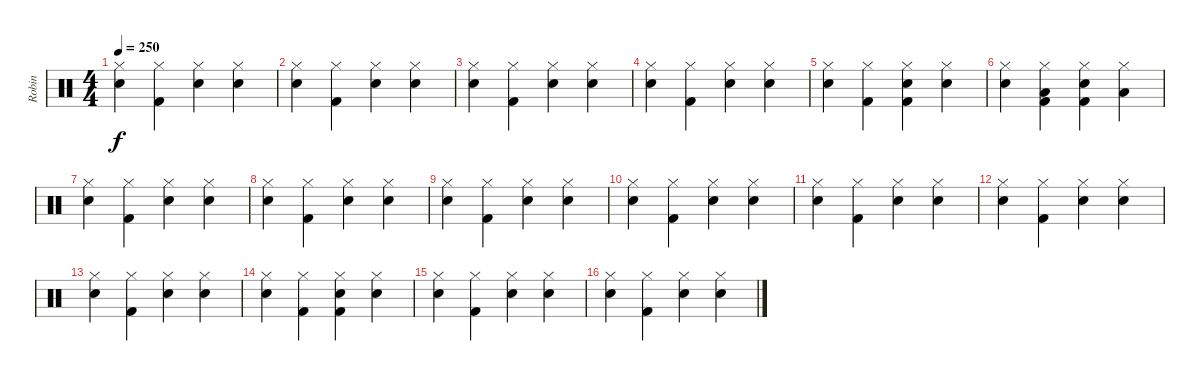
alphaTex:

\track ("Robin" "Robin") {instrument percussion}
\staff {score}
\articulation defaults
\ts (4 4)
\tempo 250
\clef neutral
\ks c
("Hi-Hat (closed)" "Snare (hit) 2").4{dy f} ("Hi-Hat (closed)" "Kick (hit) 2").4 ("Hi-Hat (closed)" "Snare (hit) 2").4 ("Hi-Hat (closed)" "Snare (hit) 2").4 |
("Hi-Hat (closed)" "Snare (hit) 2").4 ("Hi-Hat (closed)" "Kick (hit) 2").4 ("Hi-Hat (closed)" "Snare (hit) 2").4 ("Hi-Hat (closed)" "Snare (hit) 2").4 |
("Hi-Hat (closed)" "Snare (hit) 2").4 ("Hi-Hat (closed)" "Kick (hit) 2").4 ("Hi-Hat (closed)" "Snare (hit) 2").4 ("Hi-Hat (closed)" "Snare (hit) 2").4 |
("Hi-Hat (closed)" "Snare (hit) 2").4 ("Hi-Hat (closed)" "Kick (hit) 2").4 ("Hi-Hat (closed)" "Snare (hit) 2").4 ("Hi-Hat (closed)" "Snare (hit) 2").4 |
("Hi-Hat (closed)" "Snare (hit) 2").4 ("Hi-Hat (closed)" "Kick (hit) 2").4 ("Hi-Hat (closed)" "Kick (hit) 2" "Snare (hit) 2").4 ("Hi-Hat (closed)" "Snare (hit) 2").4 |
("Hi-Hat (closed)" "Snare (hit) 2").4 ("Hi-Hat (closed)" "Kick (hit) 2" "Low Floor Tom (hit)").4 ("Hi-Hat (closed)" "Kick (hit) 2" "Snare (hit) 2").4 ("Hi-Hat (closed)" "Low Floor Tom (hit)").4 |
("Hi-Hat (closed)" "Snare (hit) 2").4 ("Hi-Hat (closed)" "Kick (hit) 2").4 ("Hi-Hat (closed)" "Snare (hit) 2").4 ("Hi-Hat (closed)" "Snare (hit) 2").4 |
("Hi-Hat (closed)" "Snare (hit) 2").4 ("Hi-Hat (closed)" "Kick (hit) 2").4 ("Hi-Hat (closed)" "Snare (hit) 2").4 ("Hi-Hat (closed)" "Snare (hit) 2").4 |
("Hi-Hat (closed)" "Snare (hit) 2").4 ("Hi-Hat (closed)" "Kick (hit) 2").4 ("Hi-Hat (closed)" "Snare (hit) 2").4 ("Hi-Hat (closed)" "Snare (hit) 2").4 |
("Hi-Hat (closed)" "Snare (hit) 2").4 ("Hi-Hat (closed)" "Kick (hit) 2").4 ("Hi-Hat (closed)" "Snare (hit) 2").4 ("Hi-Hat (closed)" "Snare (hit) 2").4 |
("Hi-Hat (closed)" "Snare (hit) 2").4 ("Hi-Hat (closed)" "Kick (hit) 2").4 ("Hi-Hat (closed)" "Snare (hit) 2").4 ("Hi-Hat (closed)" "Snare (hit) 2").4 |
("Hi-Hat (closed)" "Snare (hit) 2").4 ("Hi-Hat (closed)" "Kick (hit) 2").4 ("Hi-Hat (closed)" "Snare (hit) 2").4 ("Hi-Hat (closed)" "Snare (hit) 2").4 |
("Hi-Hat (closed)" "Snare (hit) 2").4 ("Hi-Hat (closed)" "Kick (hit) 2").4 ("Hi-Hat (closed)" "Snare (hit) 2").4 ("Hi-Hat (closed)" "Snare (hit) 2").4 |
("Hi-Hat (closed)" "Snare (hit) 2").4 ("Hi-Hat (closed)" "Kick (hit) 2").4 ("Hi-Hat (closed)" "Kick (hit) 2" "Snare (hit) 2").4 ("Hi-Hat (closed)" "Snare (hit) 2").4 |
("Hi-Hat (closed)" "Snare (hit) 2").4 ("Hi-Hat (closed)" "Kick (hit) 2").4 ("Hi-Hat (closed)" "Snare (hit) 2").4 ("Hi-Hat (closed)" "Snare (hit) 2").4 |
("Hi-Hat (closed)" "Snare (hit) 2").4 ("Hi-Hat (closed)" "Kick (hit) 2").4 ("Hi-Hat (closed)" "Snare (hit) 2").4 ("Hi-Hat (closed)" "Snare (hit) 2").4
